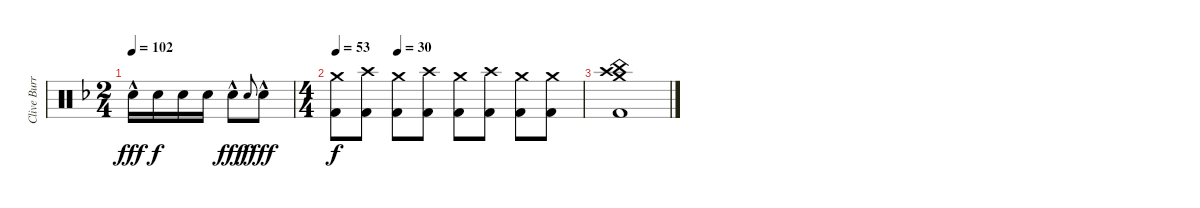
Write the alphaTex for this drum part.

\track ("Clive Burr" "Clive Burr") {instrument percussion}
\staff {score}
\articulation defaults
\ts (2 4)
\tempo 102
\clef neutral
\ks dminor "Snare (hit) 2"{hac}.16{dy fff} "Snare (hit) 2".16{dy f} "Snare (hit) 2".16 "Snare (hit) 2".16 "Snare (hit) 2"{hac}.8{dy fff} "Electric Snare (hit)".8{gr onbeat dy f} "Electric Snare (hit)"{hac}.8{dy fff}
|
\ts (4 4)
\tempo 53
\tempo (30 0.25)
("Crash medium (hit)" "Kick (hit) 2").8{dy f} ("Crash high (hit)" "Kick (hit) 2").8 ("Crash medium (hit)" "Kick (hit) 2").8 ("Crash high (hit)" "Kick (hit) 2").8 ("Crash medium (hit)" "Kick (hit) 2").8 ("Crash high (hit)" "Kick (hit) 2").8 ("Crash medium (hit)" "Kick (hit) 2").8 ("Crash medium (hit)" "Kick (hit) 2").8 |
("Crash medium (hit)" "Crash high (hit)" "China (hit)" "Kick (hit) 2").1
